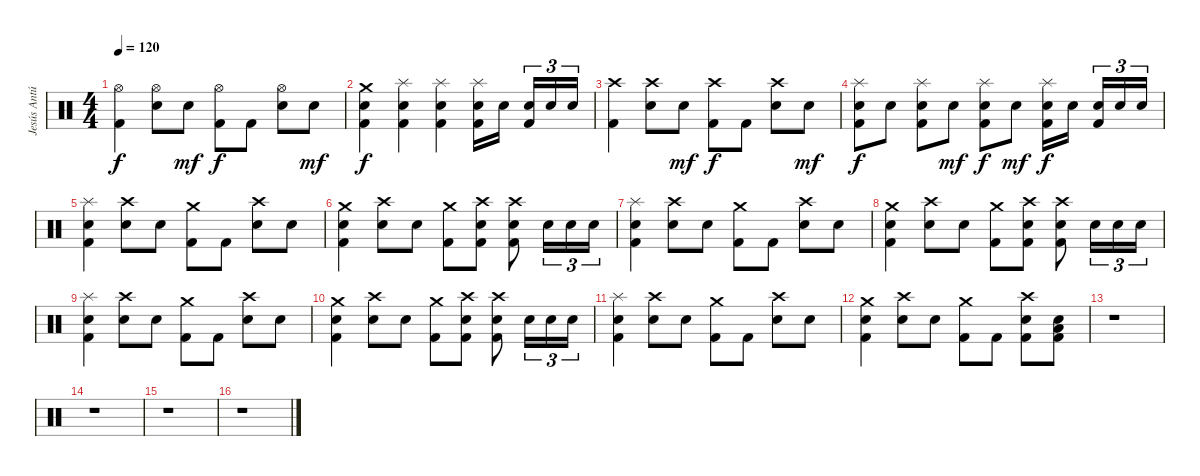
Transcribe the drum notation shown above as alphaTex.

\track ("Jesús Antúnez" "Jesús Antú") {instrument percussion}
\staff {score}
\articulation defaults
\ts (4 4)
\tempo 120
\clef neutral
\ks c
("Kick (hit) 2" "Hi-Hat (open)").4{dy f} ("Electric Snare (hit)" "Hi-Hat (open)").8 "Electric Snare (hit)".8{dy mf} ("Kick (hit) 2" "Hi-Hat (open)").8{dy f} "Kick (hit) 2".8 ("Electric Snare (hit)" "Hi-Hat (open)").8 "Electric Snare (hit)".8{dy mf} |
("Kick (hit) 2" "Electric Snare (hit)" "Crash medium (hit)").4{dy f} ("Kick (hit) 2" "Electric Snare (hit)" "Splash (hit)").4 ("Kick (hit) 2" "Electric Snare (hit)" "Splash (hit)").4 ("Kick (hit) 2" "Electric Snare (hit)" "Splash (hit)").16 "Electric Snare (hit)".16 ("Kick (hit) 2" "Electric Snare (hit)").16{tu (3 2)} "Electric Snare (hit)".16{tu (3 2)} "Electric Snare (hit)".16{tu (3 2)} |
("Kick (hit) 2" "Crash high (hit)").4 ("Electric Snare (hit)" "Crash high (hit)").8 "Electric Snare (hit)".8{dy mf} ("Kick (hit) 2" "Crash high (hit)").8{dy f} "Kick (hit) 2".8 ("Electric Snare (hit)" "Crash high (hit)").8 "Electric Snare (hit)".8{dy mf} |
("Kick (hit) 2" "Electric Snare (hit)" "Splash (hit)").8{dy f} "Electric Snare (hit)".8 ("Kick (hit) 2" "Electric Snare (hit)" "Splash (hit)").8 "Electric Snare (hit)".8{dy mf} ("Kick (hit) 2" "Electric Snare (hit)" "Splash (hit)").8{dy f} "Electric Snare (hit)".8{dy mf} ("Kick (hit) 2" "Electric Snare (hit)" "Splash (hit)").16{dy f} "Electric Snare (hit)".16 ("Kick (hit) 2" "Electric Snare (hit)").16{tu (3 2)} "Electric Snare (hit)".16{tu (3 2)} "Electric Snare (hit)".16{tu (3 2)} |
("Kick (hit) 2" "Electric Snare (hit)" "Splash (hit)").4 ("Electric Snare (hit)" "Crash high (hit)").8 "Electric Snare (hit)".8 ("Kick (hit) 2" "Crash medium (hit)").8 "Kick (hit) 2".8 ("Electric Snare (hit)" "Crash high (hit)").8 "Electric Snare (hit)".8 |
("Kick (hit) 2" "Electric Snare (hit)" "Crash medium (hit)").4 ("Electric Snare (hit)" "Crash high (hit)").8 "Electric Snare (hit)".8 ("Kick (hit) 2" "Crash medium (hit)").8 ("Kick (hit) 2" "Electric Snare (hit)" "Crash high (hit)").8 ("Kick (hit) 2" "Electric Snare (hit)" "Crash high (hit)").8 "Electric Snare (hit)".16{tu (3 2)} "Electric Snare (hit)".16{tu (3 2)} "Electric Snare (hit)".16{tu (3 2)} |
("Kick (hit) 2" "Electric Snare (hit)" "Splash (hit)").4 ("Electric Snare (hit)" "Crash high (hit)").8 "Electric Snare (hit)".8 ("Kick (hit) 2" "Crash medium (hit)").8 "Kick (hit) 2".8 ("Electric Snare (hit)" "Crash high (hit)").8 "Electric Snare (hit)".8 |
("Kick (hit) 2" "Electric Snare (hit)" "Crash medium (hit)").4 ("Electric Snare (hit)" "Crash high (hit)").8 "Electric Snare (hit)".8 ("Kick (hit) 2" "Crash medium (hit)").8 ("Kick (hit) 2" "Electric Snare (hit)" "Crash high (hit)").8 ("Kick (hit) 2" "Electric Snare (hit)" "Crash high (hit)").8 "Electric Snare (hit)".16{tu (3 2)} "Electric Snare (hit)".16{tu (3 2)} "Electric Snare (hit)".16{tu (3 2)} |
("Kick (hit) 2" "Electric Snare (hit)" "Splash (hit)").4 ("Electric Snare (hit)" "Crash high (hit)").8 "Electric Snare (hit)".8 ("Kick (hit) 2" "Crash medium (hit)").8 "Kick (hit) 2".8 ("Electric Snare (hit)" "Crash high (hit)").8 "Electric Snare (hit)".8 |
("Kick (hit) 2" "Electric Snare (hit)" "Crash medium (hit)").4 ("Electric Snare (hit)" "Crash high (hit)").8 "Electric Snare (hit)".8 ("Kick (hit) 2" "Crash medium (hit)").8 ("Kick (hit) 2" "Electric Snare (hit)" "Crash high (hit)").8 ("Kick (hit) 2" "Electric Snare (hit)" "Crash high (hit)").8 "Electric Snare (hit)".16{tu (3 2)} "Electric Snare (hit)".16{tu (3 2)} "Electric Snare (hit)".16{tu (3 2)} |
("Kick (hit) 2" "Electric Snare (hit)" "Splash (hit)").4 ("Electric Snare (hit)" "Crash high (hit)").8 "Electric Snare (hit)".8 ("Kick (hit) 2" "Crash medium (hit)").8 "Kick (hit) 2".8 ("Electric Snare (hit)" "Crash high (hit)").8 "Electric Snare (hit)".8 |
("Kick (hit) 2" "Electric Snare (hit)" "Crash medium (hit)").4 ("Electric Snare (hit)" "Crash high (hit)").8 "Electric Snare (hit)".8 ("Kick (hit) 2" "Crash medium (hit)").8 "Kick (hit) 2".8 ("Kick (hit) 2" "Electric Snare (hit)" "Crash high (hit)").8 ("Kick (hit) 2" "Electric Snare (hit)" "Low Tom (hit)").8 |
r.1 |
r.1 |
r.1 |
r.1
